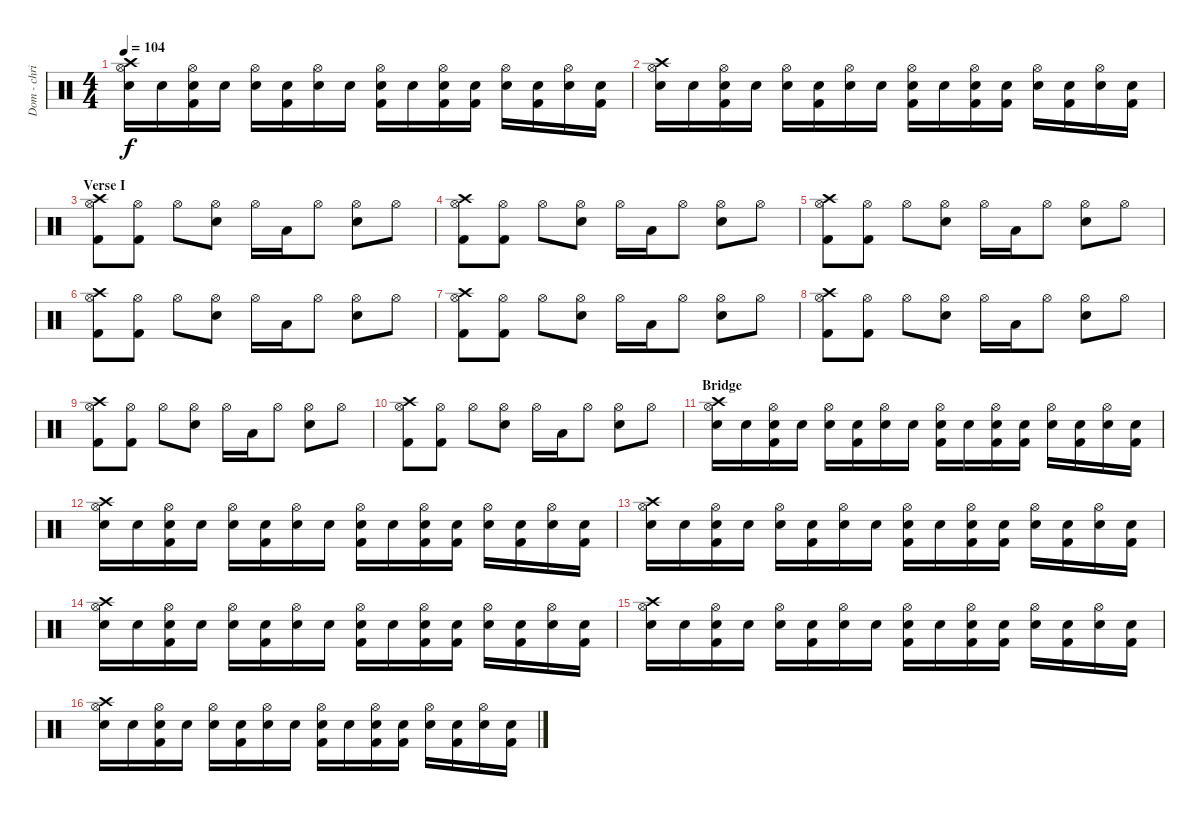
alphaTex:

\track ("Dom - chris" "Dom - chri") {instrument percussion}
\staff {score}
\articulation defaults
\ts (4 4)
\tempo 104
\clef neutral
\ks c
("Crash high (hit)" "Hi-Hat (open)" "Snare (hit) 2").16{dy f} "Snare (hit) 2"{x}.16 ("Hi-Hat (open)" "Snare (hit) 2"{x} "Kick (hit) 2").16 "Snare (hit) 2".16 ("Hi-Hat (open)" "Snare (hit) 2"{x}).16 ("Snare (hit) 2"{x} "Kick (hit) 2").16 ("Hi-Hat (open)" "Snare (hit) 2").16 "Snare (hit) 2"{x}.16 ("Hi-Hat (open)" "Snare (hit) 2"{x} "Kick (hit) 2").16 "Snare (hit) 2".16 ("Hi-Hat (open)" "Snare (hit) 2"{x} "Kick (hit) 2").16 ("Snare (hit) 2"{x} "Kick (hit) 2").16 ("Hi-Hat (open)" "Snare (hit) 2").16 ("Snare (hit) 2"{x} "Kick (hit) 2").16 ("Hi-Hat (open)" "Snare (hit) 2").16 ("Snare (hit) 2"{x} "Kick (hit) 2").16 |
("Crash high (hit)" "Hi-Hat (open)" "Snare (hit) 2").16 "Snare (hit) 2"{x}.16 ("Hi-Hat (open)" "Snare (hit) 2"{x} "Kick (hit) 2").16 "Snare (hit) 2".16 ("Hi-Hat (open)" "Snare (hit) 2"{x}).16 ("Snare (hit) 2"{x} "Kick (hit) 2").16 ("Hi-Hat (open)" "Snare (hit) 2").16 "Snare (hit) 2"{x}.16 ("Hi-Hat (open)" "Snare (hit) 2"{x} "Kick (hit) 2").16 "Snare (hit) 2".16 ("Hi-Hat (open)" "Snare (hit) 2"{x} "Kick (hit) 2").16 ("Snare (hit) 2"{x} "Kick (hit) 2").16 ("Hi-Hat (open)" "Snare (hit) 2").16 ("Snare (hit) 2"{x} "Kick (hit) 2").16 ("Hi-Hat (open)" "Snare (hit) 2").16 ("Snare (hit) 2"{x} "Kick (hit) 2").16 |
\section ("" "Verse I")
("Crash high (hit)" "Hi-Hat (open)" "Kick (hit) 2").8 ("Hi-Hat (open)" "Kick (hit) 2").8 "Hi-Hat (open)".8 ("Hi-Hat (open)" "Snare (hit) 2").8 "Hi-Hat (open)".16 "Low Tom (hit)".16 "Hi-Hat (open)".8 ("Hi-Hat (open)" "Snare (hit) 2").8 "Hi-Hat (open)".8 |
("Crash high (hit)" "Hi-Hat (open)" "Kick (hit) 2").8 ("Hi-Hat (open)" "Kick (hit) 2").8 "Hi-Hat (open)".8 ("Hi-Hat (open)" "Snare (hit) 2").8 "Hi-Hat (open)".16 "Low Tom (hit)".16 "Hi-Hat (open)".8 ("Hi-Hat (open)" "Snare (hit) 2").8 "Hi-Hat (open)".8 |
("Crash high (hit)" "Hi-Hat (open)" "Kick (hit) 2").8 ("Hi-Hat (open)" "Kick (hit) 2").8 "Hi-Hat (open)".8 ("Hi-Hat (open)" "Snare (hit) 2").8 "Hi-Hat (open)".16 "Low Tom (hit)".16 "Hi-Hat (open)".8 ("Hi-Hat (open)" "Snare (hit) 2").8 "Hi-Hat (open)".8 |
("Crash high (hit)" "Hi-Hat (open)" "Kick (hit) 2").8 ("Hi-Hat (open)" "Kick (hit) 2").8 "Hi-Hat (open)".8 ("Hi-Hat (open)" "Snare (hit) 2").8 "Hi-Hat (open)".16 "Low Tom (hit)".16 "Hi-Hat (open)".8 ("Hi-Hat (open)" "Snare (hit) 2").8 "Hi-Hat (open)".8 |
("Crash high (hit)" "Hi-Hat (open)" "Kick (hit) 2").8 ("Hi-Hat (open)" "Kick (hit) 2").8 "Hi-Hat (open)".8 ("Hi-Hat (open)" "Snare (hit) 2").8 "Hi-Hat (open)".16 "Low Tom (hit)".16 "Hi-Hat (open)".8 ("Hi-Hat (open)" "Snare (hit) 2").8 "Hi-Hat (open)".8 |
("Crash high (hit)" "Hi-Hat (open)" "Kick (hit) 2").8 ("Hi-Hat (open)" "Kick (hit) 2").8 "Hi-Hat (open)".8 ("Hi-Hat (open)" "Snare (hit) 2").8 "Hi-Hat (open)".16 "Low Tom (hit)".16 "Hi-Hat (open)".8 ("Hi-Hat (open)" "Snare (hit) 2").8 "Hi-Hat (open)".8 |
("Crash high (hit)" "Hi-Hat (open)" "Kick (hit) 2").8 ("Hi-Hat (open)" "Kick (hit) 2").8 "Hi-Hat (open)".8 ("Hi-Hat (open)" "Snare (hit) 2").8 "Hi-Hat (open)".16 "Low Tom (hit)".16 "Hi-Hat (open)".8 ("Hi-Hat (open)" "Snare (hit) 2").8 "Hi-Hat (open)".8 |
("Crash high (hit)" "Hi-Hat (open)" "Kick (hit) 2").8 ("Hi-Hat (open)" "Kick (hit) 2").8 "Hi-Hat (open)".8 ("Hi-Hat (open)" "Snare (hit) 2").8 "Hi-Hat (open)".16 "Low Tom (hit)".16 "Hi-Hat (open)".8 ("Hi-Hat (open)" "Snare (hit) 2").8 "Hi-Hat (open)".8 |
\section ("" "Bridge")
("Crash high (hit)" "Hi-Hat (open)" "Snare (hit) 2").16 "Snare (hit) 2"{x}.16 ("Hi-Hat (open)" "Snare (hit) 2"{x} "Kick (hit) 2").16 "Snare (hit) 2".16 ("Hi-Hat (open)" "Snare (hit) 2"{x}).16 ("Snare (hit) 2"{x} "Kick (hit) 2").16 ("Hi-Hat (open)" "Snare (hit) 2").16 "Snare (hit) 2"{x}.16 ("Hi-Hat (open)" "Snare (hit) 2"{x} "Kick (hit) 2").16 "Snare (hit) 2".16 ("Hi-Hat (open)" "Snare (hit) 2"{x} "Kick (hit) 2").16 ("Snare (hit) 2"{x} "Kick (hit) 2").16 ("Hi-Hat (open)" "Snare (hit) 2").16 ("Snare (hit) 2"{x} "Kick (hit) 2").16 ("Hi-Hat (open)" "Snare (hit) 2").16 ("Snare (hit) 2"{x} "Kick (hit) 2").16 |
("Crash high (hit)" "Hi-Hat (open)" "Snare (hit) 2").16 "Snare (hit) 2"{x}.16 ("Hi-Hat (open)" "Snare (hit) 2"{x} "Kick (hit) 2").16 "Snare (hit) 2".16 ("Hi-Hat (open)" "Snare (hit) 2"{x}).16 ("Snare (hit) 2"{x} "Kick (hit) 2").16 ("Hi-Hat (open)" "Snare (hit) 2").16 "Snare (hit) 2"{x}.16 ("Hi-Hat (open)" "Snare (hit) 2"{x} "Kick (hit) 2").16 "Snare (hit) 2".16 ("Hi-Hat (open)" "Snare (hit) 2"{x} "Kick (hit) 2").16 ("Snare (hit) 2"{x} "Kick (hit) 2").16 ("Hi-Hat (open)" "Snare (hit) 2").16 ("Snare (hit) 2"{x} "Kick (hit) 2").16 ("Hi-Hat (open)" "Snare (hit) 2").16 ("Snare (hit) 2"{x} "Kick (hit) 2").16 |
("Crash high (hit)" "Hi-Hat (open)" "Snare (hit) 2").16 "Snare (hit) 2"{x}.16 ("Hi-Hat (open)" "Snare (hit) 2"{x} "Kick (hit) 2").16 "Snare (hit) 2".16 ("Hi-Hat (open)" "Snare (hit) 2"{x}).16 ("Snare (hit) 2"{x} "Kick (hit) 2").16 ("Hi-Hat (open)" "Snare (hit) 2").16 "Snare (hit) 2"{x}.16 ("Hi-Hat (open)" "Snare (hit) 2"{x} "Kick (hit) 2").16 "Snare (hit) 2".16 ("Hi-Hat (open)" "Snare (hit) 2"{x} "Kick (hit) 2").16 ("Snare (hit) 2"{x} "Kick (hit) 2").16 ("Hi-Hat (open)" "Snare (hit) 2").16 ("Snare (hit) 2"{x} "Kick (hit) 2").16 ("Hi-Hat (open)" "Snare (hit) 2").16 ("Snare (hit) 2"{x} "Kick (hit) 2").16 |
("Crash high (hit)" "Hi-Hat (open)" "Snare (hit) 2").16 "Snare (hit) 2"{x}.16 ("Hi-Hat (open)" "Snare (hit) 2"{x} "Kick (hit) 2").16 "Snare (hit) 2".16 ("Hi-Hat (open)" "Snare (hit) 2"{x}).16 ("Snare (hit) 2"{x} "Kick (hit) 2").16 ("Hi-Hat (open)" "Snare (hit) 2").16 "Snare (hit) 2"{x}.16 ("Hi-Hat (open)" "Snare (hit) 2"{x} "Kick (hit) 2").16 "Snare (hit) 2".16 ("Hi-Hat (open)" "Snare (hit) 2"{x} "Kick (hit) 2").16 ("Snare (hit) 2"{x} "Kick (hit) 2").16 ("Hi-Hat (open)" "Snare (hit) 2").16 ("Snare (hit) 2"{x} "Kick (hit) 2").16 ("Hi-Hat (open)" "Snare (hit) 2").16 ("Snare (hit) 2"{x} "Kick (hit) 2").16 |
("Crash high (hit)" "Hi-Hat (open)" "Snare (hit) 2").16 "Snare (hit) 2"{x}.16 ("Hi-Hat (open)" "Snare (hit) 2"{x} "Kick (hit) 2").16 "Snare (hit) 2".16 ("Hi-Hat (open)" "Snare (hit) 2"{x}).16 ("Snare (hit) 2"{x} "Kick (hit) 2").16 ("Hi-Hat (open)" "Snare (hit) 2").16 "Snare (hit) 2"{x}.16 ("Hi-Hat (open)" "Snare (hit) 2"{x} "Kick (hit) 2").16 "Snare (hit) 2".16 ("Hi-Hat (open)" "Snare (hit) 2"{x} "Kick (hit) 2").16 ("Snare (hit) 2"{x} "Kick (hit) 2").16 ("Hi-Hat (open)" "Snare (hit) 2").16 ("Snare (hit) 2"{x} "Kick (hit) 2").16 ("Hi-Hat (open)" "Snare (hit) 2").16 ("Snare (hit) 2"{x} "Kick (hit) 2").16 |
("Crash high (hit)" "Hi-Hat (open)" "Snare (hit) 2").16 "Snare (hit) 2"{x}.16 ("Hi-Hat (open)" "Snare (hit) 2"{x} "Kick (hit) 2").16 "Snare (hit) 2".16 ("Hi-Hat (open)" "Snare (hit) 2"{x}).16 ("Snare (hit) 2"{x} "Kick (hit) 2").16 ("Hi-Hat (open)" "Snare (hit) 2").16 "Snare (hit) 2"{x}.16 ("Hi-Hat (open)" "Snare (hit) 2"{x} "Kick (hit) 2").16 "Snare (hit) 2".16 ("Hi-Hat (open)" "Snare (hit) 2"{x} "Kick (hit) 2").16 ("Snare (hit) 2"{x} "Kick (hit) 2").16 ("Hi-Hat (open)" "Snare (hit) 2").16 ("Snare (hit) 2"{x} "Kick (hit) 2").16 ("Hi-Hat (open)" "Snare (hit) 2").16 ("Snare (hit) 2"{x} "Kick (hit) 2").16
